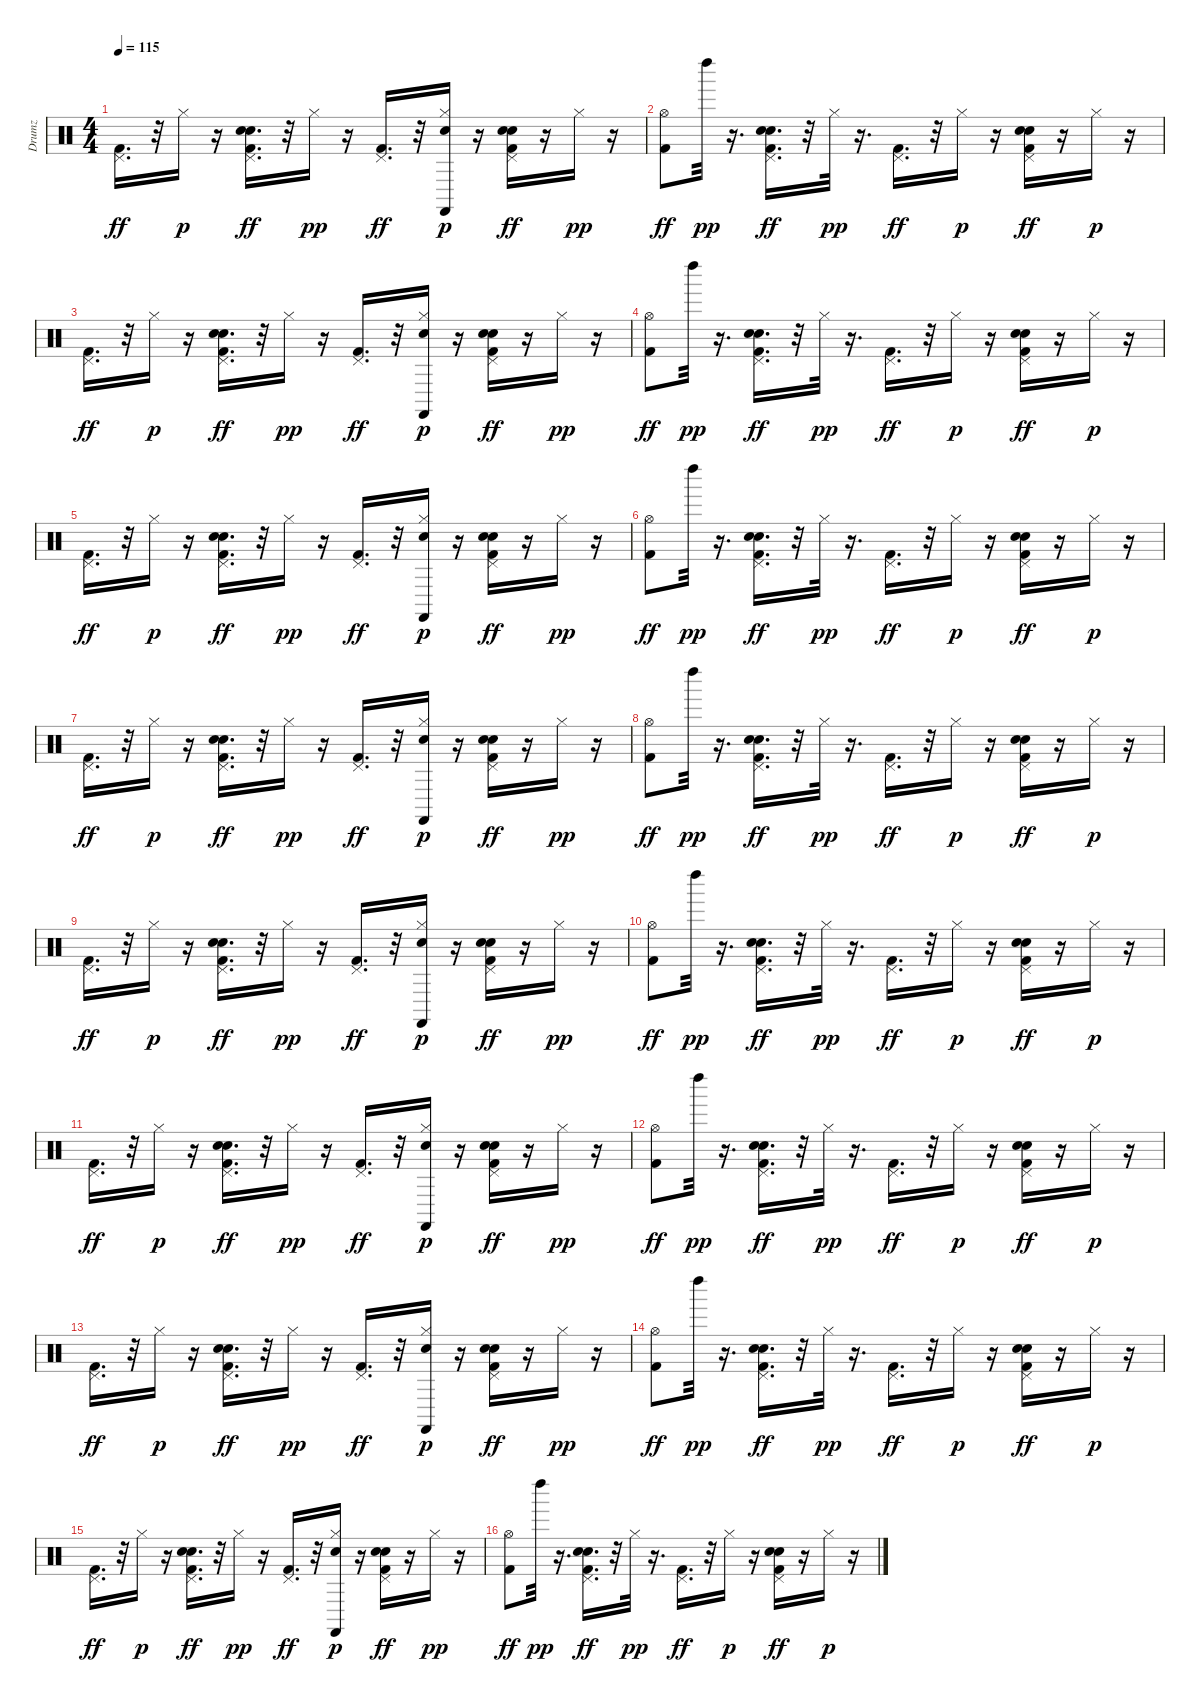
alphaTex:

\track ("Drumz" "Drumz") {instrument percussion}
\staff {score}
\articulation defaults
\ts (4 4)
\tempo 115
\clef neutral
\ks c
("Kick (hit) 2" "Pedal Hi-Hat (hit)").16{d dy ff} r.32 "Hi-Hat (closed)".16{dy p} r.16 ("Kick (hit) 2" "Pedal Hi-Hat (hit)" "Hand Clap (hit)" "Electric Snare (hit)").16{d dy ff} r.32 "Hi-Hat (closed)".16{dy pp} r.16 ("Pedal Hi-Hat (hit)" "Kick (hit) 2").16{d dy ff} r.32 ("Hi-Hat (closed)" "Castanets (hit)" "Hand Clap (hit)").16{dy p} r.16 ("Pedal Hi-Hat (hit)" "Kick (hit) 2" "Hand Clap (hit)" "Electric Snare (hit)").16{dy ff} r.16 "Hi-Hat (closed)".16{dy pp} r.16 |
("Hi-Hat (open)" "Kick (hit) 2").8{dy ff} "Left Maraca (hit)".32{dy pp} r.16{d} ("Pedal Hi-Hat (hit)" "Kick (hit) 2" "Hand Clap (hit)" "Electric Snare (hit)").16{d dy ff} r.32 "Hi-Hat (closed)".32{dy pp} r.16{d} ("Pedal Hi-Hat (hit)" "Kick (hit) 2").16{d dy ff} r.32 "Hi-Hat (closed)".16{dy p} r.16 ("Pedal Hi-Hat (hit)" "Kick (hit) 2" "Electric Snare (hit)" "Hand Clap (hit)").16{dy ff} r.16 "Hi-Hat (closed)".16{dy p} r.16 |
("Kick (hit) 2" "Pedal Hi-Hat (hit)").16{d dy ff} r.32 "Hi-Hat (closed)".16{dy p} r.16 ("Kick (hit) 2" "Pedal Hi-Hat (hit)" "Hand Clap (hit)" "Electric Snare (hit)").16{d dy ff} r.32 "Hi-Hat (closed)".16{dy pp} r.16 ("Pedal Hi-Hat (hit)" "Kick (hit) 2").16{d dy ff} r.32 ("Hi-Hat (closed)" "Castanets (hit)" "Hand Clap (hit)").16{dy p} r.16 ("Pedal Hi-Hat (hit)" "Kick (hit) 2" "Hand Clap (hit)" "Electric Snare (hit)").16{dy ff} r.16 "Hi-Hat (closed)".16{dy pp} r.16 |
("Hi-Hat (open)" "Kick (hit) 2").8{dy ff} "Left Maraca (hit)".32{dy pp} r.16{d} ("Pedal Hi-Hat (hit)" "Kick (hit) 2" "Hand Clap (hit)" "Electric Snare (hit)").16{d dy ff} r.32 "Hi-Hat (closed)".32{dy pp} r.16{d} ("Pedal Hi-Hat (hit)" "Kick (hit) 2").16{d dy ff} r.32 "Hi-Hat (closed)".16{dy p} r.16 ("Pedal Hi-Hat (hit)" "Kick (hit) 2" "Electric Snare (hit)" "Hand Clap (hit)").16{dy ff} r.16 "Hi-Hat (closed)".16{dy p} r.16 |
("Kick (hit) 2" "Pedal Hi-Hat (hit)").16{d dy ff} r.32 "Hi-Hat (closed)".16{dy p} r.16 ("Kick (hit) 2" "Pedal Hi-Hat (hit)" "Hand Clap (hit)" "Electric Snare (hit)").16{d dy ff} r.32 "Hi-Hat (closed)".16{dy pp} r.16 ("Pedal Hi-Hat (hit)" "Kick (hit) 2").16{d dy ff} r.32 ("Hi-Hat (closed)" "Castanets (hit)" "Hand Clap (hit)").16{dy p} r.16 ("Pedal Hi-Hat (hit)" "Kick (hit) 2" "Hand Clap (hit)" "Electric Snare (hit)").16{dy ff} r.16 "Hi-Hat (closed)".16{dy pp} r.16 |
("Hi-Hat (open)" "Kick (hit) 2").8{dy ff} "Left Maraca (hit)".32{dy pp} r.16{d} ("Pedal Hi-Hat (hit)" "Kick (hit) 2" "Hand Clap (hit)" "Electric Snare (hit)").16{d dy ff} r.32 "Hi-Hat (closed)".32{dy pp} r.16{d} ("Pedal Hi-Hat (hit)" "Kick (hit) 2").16{d dy ff} r.32 "Hi-Hat (closed)".16{dy p} r.16 ("Pedal Hi-Hat (hit)" "Kick (hit) 2" "Electric Snare (hit)" "Hand Clap (hit)").16{dy ff} r.16 "Hi-Hat (closed)".16{dy p} r.16 |
("Kick (hit) 2" "Pedal Hi-Hat (hit)").16{d dy ff} r.32 "Hi-Hat (closed)".16{dy p} r.16 ("Kick (hit) 2" "Pedal Hi-Hat (hit)" "Hand Clap (hit)" "Electric Snare (hit)").16{d dy ff} r.32 "Hi-Hat (closed)".16{dy pp} r.16 ("Pedal Hi-Hat (hit)" "Kick (hit) 2").16{d dy ff} r.32 ("Hi-Hat (closed)" "Castanets (hit)" "Hand Clap (hit)").16{dy p} r.16 ("Pedal Hi-Hat (hit)" "Kick (hit) 2" "Hand Clap (hit)" "Electric Snare (hit)").16{dy ff} r.16 "Hi-Hat (closed)".16{dy pp} r.16 |
("Hi-Hat (open)" "Kick (hit) 2").8{dy ff} "Left Maraca (hit)".32{dy pp} r.16{d} ("Pedal Hi-Hat (hit)" "Kick (hit) 2" "Hand Clap (hit)" "Electric Snare (hit)").16{d dy ff} r.32 "Hi-Hat (closed)".32{dy pp} r.16{d} ("Pedal Hi-Hat (hit)" "Kick (hit) 2").16{d dy ff} r.32 "Hi-Hat (closed)".16{dy p} r.16 ("Pedal Hi-Hat (hit)" "Kick (hit) 2" "Electric Snare (hit)" "Hand Clap (hit)").16{dy ff} r.16 "Hi-Hat (closed)".16{dy p} r.16 |
("Kick (hit) 2" "Pedal Hi-Hat (hit)").16{d dy ff} r.32 "Hi-Hat (closed)".16{dy p} r.16 ("Kick (hit) 2" "Pedal Hi-Hat (hit)" "Hand Clap (hit)" "Electric Snare (hit)").16{d dy ff} r.32 "Hi-Hat (closed)".16{dy pp} r.16 ("Pedal Hi-Hat (hit)" "Kick (hit) 2").16{d dy ff} r.32 ("Hi-Hat (closed)" "Castanets (hit)" "Hand Clap (hit)").16{dy p} r.16 ("Pedal Hi-Hat (hit)" "Kick (hit) 2" "Hand Clap (hit)" "Electric Snare (hit)").16{dy ff} r.16 "Hi-Hat (closed)".16{dy pp} r.16 |
("Hi-Hat (open)" "Kick (hit) 2").8{dy ff} "Left Maraca (hit)".32{dy pp} r.16{d} ("Pedal Hi-Hat (hit)" "Kick (hit) 2" "Hand Clap (hit)" "Electric Snare (hit)").16{d dy ff} r.32 "Hi-Hat (closed)".32{dy pp} r.16{d} ("Pedal Hi-Hat (hit)" "Kick (hit) 2").16{d dy ff} r.32 "Hi-Hat (closed)".16{dy p} r.16 ("Pedal Hi-Hat (hit)" "Kick (hit) 2" "Electric Snare (hit)" "Hand Clap (hit)").16{dy ff} r.16 "Hi-Hat (closed)".16{dy p} r.16 |
("Kick (hit) 2" "Pedal Hi-Hat (hit)").16{d dy ff} r.32 "Hi-Hat (closed)".16{dy p} r.16 ("Kick (hit) 2" "Pedal Hi-Hat (hit)" "Hand Clap (hit)" "Electric Snare (hit)").16{d dy ff} r.32 "Hi-Hat (closed)".16{dy pp} r.16 ("Pedal Hi-Hat (hit)" "Kick (hit) 2").16{d dy ff} r.32 ("Hi-Hat (closed)" "Castanets (hit)" "Hand Clap (hit)").16{dy p} r.16 ("Pedal Hi-Hat (hit)" "Kick (hit) 2" "Hand Clap (hit)" "Electric Snare (hit)").16{dy ff} r.16 "Hi-Hat (closed)".16{dy pp} r.16 |
("Hi-Hat (open)" "Kick (hit) 2").8{dy ff} "Left Maraca (hit)".32{dy pp} r.16{d} ("Pedal Hi-Hat (hit)" "Kick (hit) 2" "Hand Clap (hit)" "Electric Snare (hit)").16{d dy ff} r.32 "Hi-Hat (closed)".32{dy pp} r.16{d} ("Pedal Hi-Hat (hit)" "Kick (hit) 2").16{d dy ff} r.32 "Hi-Hat (closed)".16{dy p} r.16 ("Pedal Hi-Hat (hit)" "Kick (hit) 2" "Electric Snare (hit)" "Hand Clap (hit)").16{dy ff} r.16 "Hi-Hat (closed)".16{dy p} r.16 |
("Kick (hit) 2" "Pedal Hi-Hat (hit)").16{d dy ff} r.32 "Hi-Hat (closed)".16{dy p} r.16 ("Kick (hit) 2" "Pedal Hi-Hat (hit)" "Hand Clap (hit)" "Electric Snare (hit)").16{d dy ff} r.32 "Hi-Hat (closed)".16{dy pp} r.16 ("Pedal Hi-Hat (hit)" "Kick (hit) 2").16{d dy ff} r.32 ("Hi-Hat (closed)" "Castanets (hit)" "Hand Clap (hit)").16{dy p} r.16 ("Pedal Hi-Hat (hit)" "Kick (hit) 2" "Hand Clap (hit)" "Electric Snare (hit)").16{dy ff} r.16 "Hi-Hat (closed)".16{dy pp} r.16 |
("Hi-Hat (open)" "Kick (hit) 2").8{dy ff} "Left Maraca (hit)".32{dy pp} r.16{d} ("Pedal Hi-Hat (hit)" "Kick (hit) 2" "Hand Clap (hit)" "Electric Snare (hit)").16{d dy ff} r.32 "Hi-Hat (closed)".32{dy pp} r.16{d} ("Pedal Hi-Hat (hit)" "Kick (hit) 2").16{d dy ff} r.32 "Hi-Hat (closed)".16{dy p} r.16 ("Pedal Hi-Hat (hit)" "Kick (hit) 2" "Electric Snare (hit)" "Hand Clap (hit)").16{dy ff} r.16 "Hi-Hat (closed)".16{dy p} r.16 |
("Kick (hit) 2" "Pedal Hi-Hat (hit)").16{d dy ff} r.32 "Hi-Hat (closed)".16{dy p} r.16 ("Kick (hit) 2" "Pedal Hi-Hat (hit)" "Hand Clap (hit)" "Electric Snare (hit)").16{d dy ff} r.32 "Hi-Hat (closed)".16{dy pp} r.16 ("Pedal Hi-Hat (hit)" "Kick (hit) 2").16{d dy ff} r.32 ("Hi-Hat (closed)" "Castanets (hit)" "Hand Clap (hit)").16{dy p} r.16 ("Pedal Hi-Hat (hit)" "Kick (hit) 2" "Hand Clap (hit)" "Electric Snare (hit)").16{dy ff} r.16 "Hi-Hat (closed)".16{dy pp} r.16 |
("Hi-Hat (open)" "Kick (hit) 2").8{dy ff} "Left Maraca (hit)".32{dy pp} r.16{d} ("Pedal Hi-Hat (hit)" "Kick (hit) 2" "Hand Clap (hit)" "Electric Snare (hit)").16{d dy ff} r.32 "Hi-Hat (closed)".32{dy pp} r.16{d} ("Pedal Hi-Hat (hit)" "Kick (hit) 2").16{d dy ff} r.32 "Hi-Hat (closed)".16{dy p} r.16 ("Pedal Hi-Hat (hit)" "Kick (hit) 2" "Electric Snare (hit)" "Hand Clap (hit)").16{dy ff} r.16 "Hi-Hat (closed)".16{dy p} r.16
